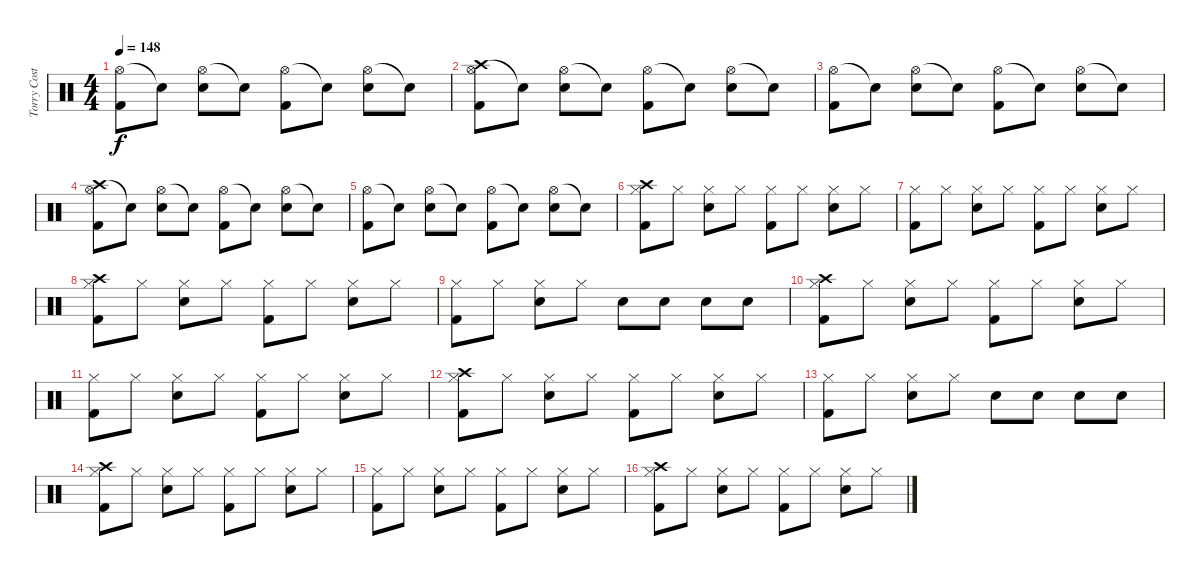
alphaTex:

\track ("Torry Costellano" "Torry Cost") {instrument percussion bank 127}
\staff {score}
\articulation defaults
\ts (4 4)
\tempo 148
\clef neutral
\ks c
("Hi-Hat (open)" "Kick (hit) 2").8{dy f} "Snare (hit)"{t}.8 ("Hi-Hat (open)" "Electric Snare (hit)").8 "Snare (hit)"{t}.8 ("Hi-Hat (open)" "Kick (hit) 2").8 "Snare (hit)"{t}.8 ("Hi-Hat (open)" "Electric Snare (hit)").8 "Snare (hit)"{t}.8 |
("Crash high (hit)" "Hi-Hat (open)" "Kick (hit) 2").8 "Snare (hit)"{t}.8 ("Hi-Hat (open)" "Electric Snare (hit)").8 "Snare (hit)"{t}.8 ("Hi-Hat (open)" "Kick (hit) 2").8 "Snare (hit)"{t}.8 ("Hi-Hat (open)" "Electric Snare (hit)").8 "Snare (hit)"{t}.8 |
("Hi-Hat (open)" "Kick (hit) 2").8 "Snare (hit)"{t}.8 ("Hi-Hat (open)" "Electric Snare (hit)").8 "Snare (hit)"{t}.8 ("Hi-Hat (open)" "Kick (hit) 2").8 "Snare (hit)"{t}.8 ("Hi-Hat (open)" "Electric Snare (hit)").8 "Snare (hit)"{t}.8 |
("Crash high (hit)" "Hi-Hat (open)" "Kick (hit) 2").8 "Snare (hit)"{t}.8 ("Hi-Hat (open)" "Electric Snare (hit)").8 "Snare (hit)"{t}.8 ("Hi-Hat (open)" "Kick (hit) 2").8 "Snare (hit)"{t}.8 ("Hi-Hat (open)" "Electric Snare (hit)").8 "Snare (hit)"{t}.8 |
("Hi-Hat (open)" "Kick (hit) 2").8 "Snare (hit)"{t}.8 ("Hi-Hat (open)" "Electric Snare (hit)").8 "Snare (hit)"{t}.8 ("Hi-Hat (open)" "Kick (hit) 2").8 "Snare (hit)"{t}.8 ("Hi-Hat (open)" "Electric Snare (hit)").8 "Snare (hit)"{t}.8 |
("Crash high (hit)" "Hi-Hat (closed)" "Kick (hit) 2").8 "Hi-Hat (closed)".8 ("Hi-Hat (closed)" "Electric Snare (hit)").8 "Hi-Hat (closed)".8 ("Hi-Hat (closed)" "Kick (hit) 2").8 "Hi-Hat (closed)".8 ("Hi-Hat (closed)" "Electric Snare (hit)").8 "Hi-Hat (closed)".8 |
("Hi-Hat (closed)" "Kick (hit) 2").8 "Hi-Hat (closed)".8 ("Hi-Hat (closed)" "Electric Snare (hit)").8 "Hi-Hat (closed)".8 ("Hi-Hat (closed)" "Kick (hit) 2").8 "Hi-Hat (closed)".8 ("Hi-Hat (closed)" "Electric Snare (hit)").8 "Hi-Hat (closed)".8 |
("Crash high (hit)" "Hi-Hat (closed)" "Kick (hit) 2").8 "Hi-Hat (closed)".8 ("Hi-Hat (closed)" "Electric Snare (hit)").8 "Hi-Hat (closed)".8 ("Hi-Hat (closed)" "Kick (hit) 2").8 "Hi-Hat (closed)".8 ("Hi-Hat (closed)" "Electric Snare (hit)").8 "Hi-Hat (closed)".8 |
("Hi-Hat (closed)" "Kick (hit) 2").8 "Hi-Hat (closed)".8 ("Hi-Hat (closed)" "Electric Snare (hit)").8 "Hi-Hat (closed)".8 "Electric Snare (hit)".8 "Electric Snare (hit)".8 "Electric Snare (hit)".8 "Electric Snare (hit)".8 |
("Crash high (hit)" "Hi-Hat (closed)" "Kick (hit) 2").8 "Hi-Hat (closed)".8 ("Hi-Hat (closed)" "Electric Snare (hit)").8 "Hi-Hat (closed)".8 ("Hi-Hat (closed)" "Kick (hit) 2").8 "Hi-Hat (closed)".8 ("Hi-Hat (closed)" "Electric Snare (hit)").8 "Hi-Hat (closed)".8 |
("Hi-Hat (closed)" "Kick (hit) 2").8 "Hi-Hat (closed)".8 ("Hi-Hat (closed)" "Electric Snare (hit)").8 "Hi-Hat (closed)".8 ("Hi-Hat (closed)" "Kick (hit) 2").8 "Hi-Hat (closed)".8 ("Hi-Hat (closed)" "Electric Snare (hit)").8 "Hi-Hat (closed)".8 |
("Crash high (hit)" "Hi-Hat (closed)" "Kick (hit) 2").8 "Hi-Hat (closed)".8 ("Hi-Hat (closed)" "Electric Snare (hit)").8 "Hi-Hat (closed)".8 ("Hi-Hat (closed)" "Kick (hit) 2").8 "Hi-Hat (closed)".8 ("Hi-Hat (closed)" "Electric Snare (hit)").8 "Hi-Hat (closed)".8 |
("Hi-Hat (closed)" "Kick (hit) 2").8 "Hi-Hat (closed)".8 ("Hi-Hat (closed)" "Electric Snare (hit)").8 "Hi-Hat (closed)".8 "Electric Snare (hit)".8 "Electric Snare (hit)".8 "Electric Snare (hit)".8 "Electric Snare (hit)".8 |
("Crash high (hit)" "Hi-Hat (closed)" "Kick (hit) 2").8 "Hi-Hat (closed)".8 ("Hi-Hat (closed)" "Electric Snare (hit)").8 "Hi-Hat (closed)".8 ("Hi-Hat (closed)" "Kick (hit) 2").8 "Hi-Hat (closed)".8 ("Hi-Hat (closed)" "Electric Snare (hit)").8 "Hi-Hat (closed)".8 |
("Hi-Hat (closed)" "Kick (hit) 2").8 "Hi-Hat (closed)".8 ("Hi-Hat (closed)" "Electric Snare (hit)").8 "Hi-Hat (closed)".8 ("Hi-Hat (closed)" "Kick (hit) 2").8 "Hi-Hat (closed)".8 ("Hi-Hat (closed)" "Electric Snare (hit)").8 "Hi-Hat (closed)".8 |
("Crash high (hit)" "Hi-Hat (closed)" "Kick (hit) 2").8 "Hi-Hat (closed)".8 ("Hi-Hat (closed)" "Electric Snare (hit)").8 "Hi-Hat (closed)".8 ("Hi-Hat (closed)" "Kick (hit) 2").8 "Hi-Hat (closed)".8 ("Hi-Hat (closed)" "Electric Snare (hit)").8 "Hi-Hat (closed)".8
